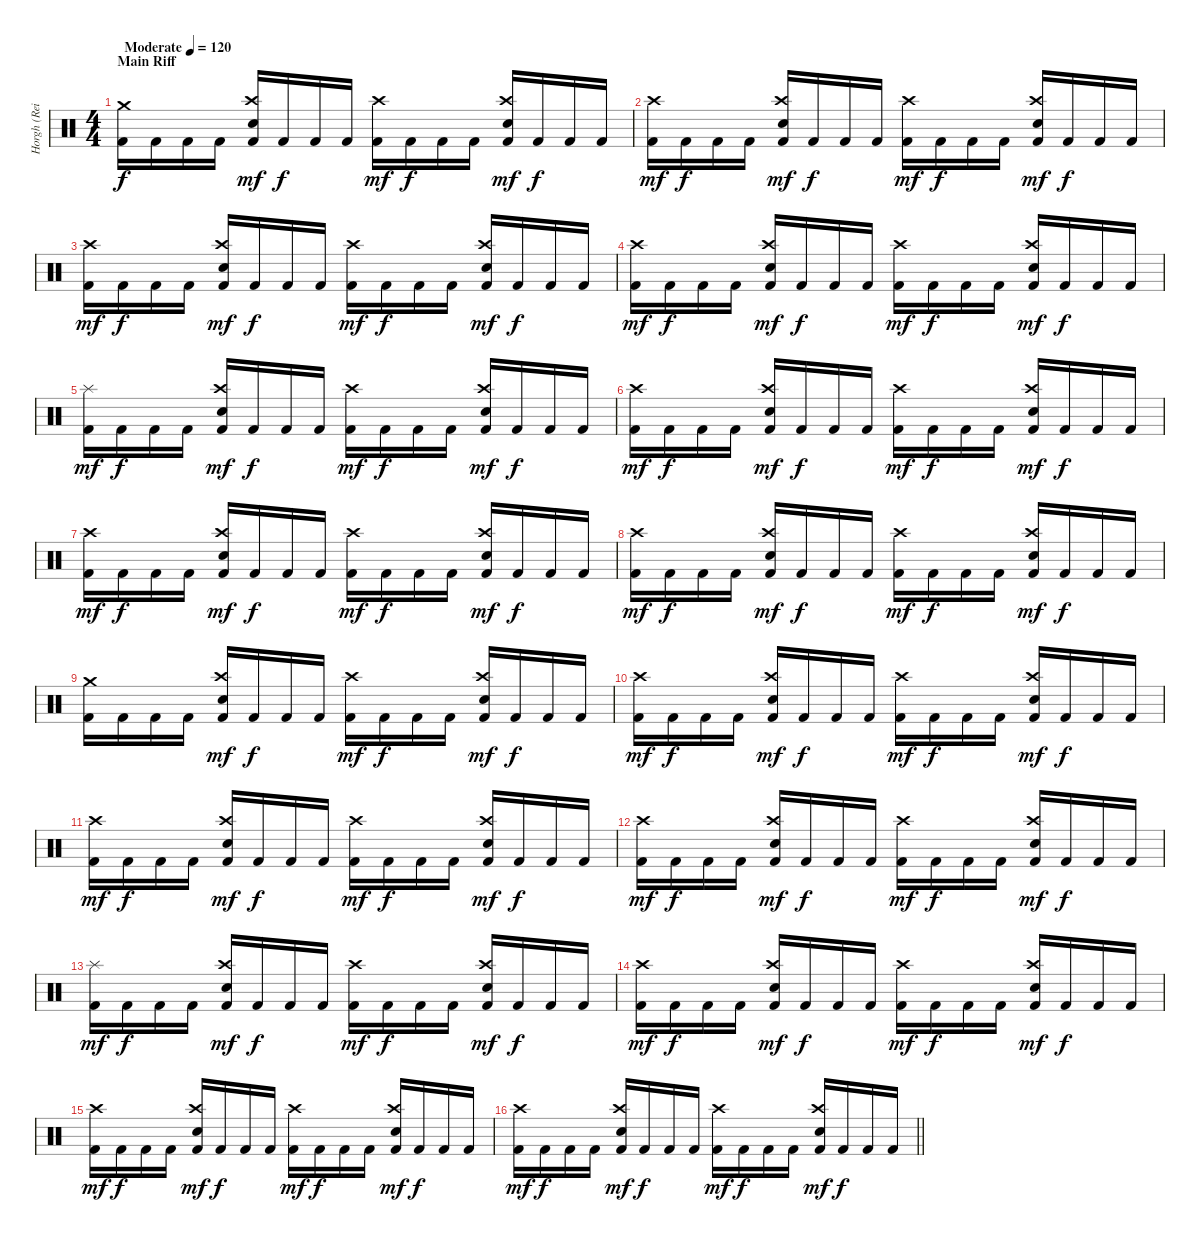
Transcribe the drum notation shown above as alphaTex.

\track ("Horgh (Reidar Horghagen)" "Horgh (Rei") {instrument percussion}
\staff {score}
\articulation defaults
\ts (4 4)
\section ("" "Main Riff")
\tempo (120 "Moderate")
\clef neutral
\ks c
("Crash medium (hit)" "Kick (hit) 2").16{dy f} "Kick (hit) 2".16 "Kick (hit) 2".16 "Kick (hit) 2".16 ("Crash high (hit)" "Snare (hit) 2" "Kick (hit) 2").16{dy mf} "Kick (hit) 2".16{dy f} "Kick (hit) 2".16 "Kick (hit) 2".16 ("Crash high (hit)" "Kick (hit) 2").16{dy mf} "Kick (hit) 2".16{dy f} "Kick (hit) 2".16 "Kick (hit) 2".16 ("Crash high (hit)" "Snare (hit) 2" "Kick (hit) 2").16{dy mf} "Kick (hit) 2".16{dy f} "Kick (hit) 2".16 "Kick (hit) 2".16 |
("Crash high (hit)" "Kick (hit) 2").16{dy mf} "Kick (hit) 2".16{dy f} "Kick (hit) 2".16 "Kick (hit) 2".16 ("Crash high (hit)" "Snare (hit) 2" "Kick (hit) 2").16{dy mf} "Kick (hit) 2".16{dy f} "Kick (hit) 2".16 "Kick (hit) 2".16 ("Crash high (hit)" "Kick (hit) 2").16{dy mf} "Kick (hit) 2".16{dy f} "Kick (hit) 2".16 "Kick (hit) 2".16 ("Crash high (hit)" "Snare (hit) 2" "Kick (hit) 2").16{dy mf} "Kick (hit) 2".16{dy f} "Kick (hit) 2".16 "Kick (hit) 2".16 |
("Crash high (hit)" "Kick (hit) 2").16{dy mf} "Kick (hit) 2".16{dy f} "Kick (hit) 2".16 "Kick (hit) 2".16 ("Crash high (hit)" "Snare (hit) 2" "Kick (hit) 2").16{dy mf} "Kick (hit) 2".16{dy f} "Kick (hit) 2".16 "Kick (hit) 2".16 ("Crash high (hit)" "Kick (hit) 2").16{dy mf} "Kick (hit) 2".16{dy f} "Kick (hit) 2".16 "Kick (hit) 2".16 ("Crash high (hit)" "Snare (hit) 2" "Kick (hit) 2").16{dy mf} "Kick (hit) 2".16{dy f} "Kick (hit) 2".16 "Kick (hit) 2".16 |
("Crash high (hit)" "Kick (hit) 2").16{dy mf} "Kick (hit) 2".16{dy f} "Kick (hit) 2".16 "Kick (hit) 2".16 ("Crash high (hit)" "Snare (hit) 2" "Kick (hit) 2").16{dy mf} "Kick (hit) 2".16{dy f} "Kick (hit) 2".16 "Kick (hit) 2".16 ("Crash high (hit)" "Kick (hit) 2").16{dy mf} "Kick (hit) 2".16{dy f} "Kick (hit) 2".16 "Kick (hit) 2".16 ("Crash high (hit)" "Snare (hit) 2" "Kick (hit) 2").16{dy mf} "Kick (hit) 2".16{dy f} "Kick (hit) 2".16 "Kick (hit) 2".16 |
("Splash (hit)" "Kick (hit) 2").16{dy mf} "Kick (hit) 2".16{dy f} "Kick (hit) 2".16 "Kick (hit) 2".16 ("Crash high (hit)" "Snare (hit) 2" "Kick (hit) 2").16{dy mf} "Kick (hit) 2".16{dy f} "Kick (hit) 2".16 "Kick (hit) 2".16 ("Crash high (hit)" "Kick (hit) 2").16{dy mf} "Kick (hit) 2".16{dy f} "Kick (hit) 2".16 "Kick (hit) 2".16 ("Crash high (hit)" "Snare (hit) 2" "Kick (hit) 2").16{dy mf} "Kick (hit) 2".16{dy f} "Kick (hit) 2".16 "Kick (hit) 2".16 |
("Crash high (hit)" "Kick (hit) 2").16{dy mf} "Kick (hit) 2".16{dy f} "Kick (hit) 2".16 "Kick (hit) 2".16 ("Crash high (hit)" "Snare (hit) 2" "Kick (hit) 2").16{dy mf} "Kick (hit) 2".16{dy f} "Kick (hit) 2".16 "Kick (hit) 2".16 ("Crash high (hit)" "Kick (hit) 2").16{dy mf} "Kick (hit) 2".16{dy f} "Kick (hit) 2".16 "Kick (hit) 2".16 ("Crash high (hit)" "Snare (hit) 2" "Kick (hit) 2").16{dy mf} "Kick (hit) 2".16{dy f} "Kick (hit) 2".16 "Kick (hit) 2".16 |
("Crash high (hit)" "Kick (hit) 2").16{dy mf} "Kick (hit) 2".16{dy f} "Kick (hit) 2".16 "Kick (hit) 2".16 ("Crash high (hit)" "Snare (hit) 2" "Kick (hit) 2").16{dy mf} "Kick (hit) 2".16{dy f} "Kick (hit) 2".16 "Kick (hit) 2".16 ("Crash high (hit)" "Kick (hit) 2").16{dy mf} "Kick (hit) 2".16{dy f} "Kick (hit) 2".16 "Kick (hit) 2".16 ("Crash high (hit)" "Snare (hit) 2" "Kick (hit) 2").16{dy mf} "Kick (hit) 2".16{dy f} "Kick (hit) 2".16 "Kick (hit) 2".16 |
("Crash high (hit)" "Kick (hit) 2").16{dy mf} "Kick (hit) 2".16{dy f} "Kick (hit) 2".16 "Kick (hit) 2".16 ("Crash high (hit)" "Snare (hit) 2" "Kick (hit) 2").16{dy mf} "Kick (hit) 2".16{dy f} "Kick (hit) 2".16 "Kick (hit) 2".16 ("Crash high (hit)" "Kick (hit) 2").16{dy mf} "Kick (hit) 2".16{dy f} "Kick (hit) 2".16 "Kick (hit) 2".16 ("Crash high (hit)" "Snare (hit) 2" "Kick (hit) 2").16{dy mf} "Kick (hit) 2".16{dy f} "Kick (hit) 2".16 "Kick (hit) 2".16 |
("Crash medium (hit)" "Kick (hit) 2").16 "Kick (hit) 2".16 "Kick (hit) 2".16 "Kick (hit) 2".16 ("Crash high (hit)" "Snare (hit) 2" "Kick (hit) 2").16{dy mf} "Kick (hit) 2".16{dy f} "Kick (hit) 2".16 "Kick (hit) 2".16 ("Crash high (hit)" "Kick (hit) 2").16{dy mf} "Kick (hit) 2".16{dy f} "Kick (hit) 2".16 "Kick (hit) 2".16 ("Crash high (hit)" "Snare (hit) 2" "Kick (hit) 2").16{dy mf} "Kick (hit) 2".16{dy f} "Kick (hit) 2".16 "Kick (hit) 2".16 |
("Crash high (hit)" "Kick (hit) 2").16{dy mf} "Kick (hit) 2".16{dy f} "Kick (hit) 2".16 "Kick (hit) 2".16 ("Crash high (hit)" "Snare (hit) 2" "Kick (hit) 2").16{dy mf} "Kick (hit) 2".16{dy f} "Kick (hit) 2".16 "Kick (hit) 2".16 ("Crash high (hit)" "Kick (hit) 2").16{dy mf} "Kick (hit) 2".16{dy f} "Kick (hit) 2".16 "Kick (hit) 2".16 ("Crash high (hit)" "Snare (hit) 2" "Kick (hit) 2").16{dy mf} "Kick (hit) 2".16{dy f} "Kick (hit) 2".16 "Kick (hit) 2".16 |
("Crash high (hit)" "Kick (hit) 2").16{dy mf} "Kick (hit) 2".16{dy f} "Kick (hit) 2".16 "Kick (hit) 2".16 ("Crash high (hit)" "Snare (hit) 2" "Kick (hit) 2").16{dy mf} "Kick (hit) 2".16{dy f} "Kick (hit) 2".16 "Kick (hit) 2".16 ("Crash high (hit)" "Kick (hit) 2").16{dy mf} "Kick (hit) 2".16{dy f} "Kick (hit) 2".16 "Kick (hit) 2".16 ("Crash high (hit)" "Snare (hit) 2" "Kick (hit) 2").16{dy mf} "Kick (hit) 2".16{dy f} "Kick (hit) 2".16 "Kick (hit) 2".16 |
("Crash high (hit)" "Kick (hit) 2").16{dy mf} "Kick (hit) 2".16{dy f} "Kick (hit) 2".16 "Kick (hit) 2".16 ("Crash high (hit)" "Snare (hit) 2" "Kick (hit) 2").16{dy mf} "Kick (hit) 2".16{dy f} "Kick (hit) 2".16 "Kick (hit) 2".16 ("Crash high (hit)" "Kick (hit) 2").16{dy mf} "Kick (hit) 2".16{dy f} "Kick (hit) 2".16 "Kick (hit) 2".16 ("Crash high (hit)" "Snare (hit) 2" "Kick (hit) 2").16{dy mf} "Kick (hit) 2".16{dy f} "Kick (hit) 2".16 "Kick (hit) 2".16 |
("Splash (hit)" "Kick (hit) 2").16{dy mf} "Kick (hit) 2".16{dy f} "Kick (hit) 2".16 "Kick (hit) 2".16 ("Crash high (hit)" "Snare (hit) 2" "Kick (hit) 2").16{dy mf} "Kick (hit) 2".16{dy f} "Kick (hit) 2".16 "Kick (hit) 2".16 ("Crash high (hit)" "Kick (hit) 2").16{dy mf} "Kick (hit) 2".16{dy f} "Kick (hit) 2".16 "Kick (hit) 2".16 ("Crash high (hit)" "Snare (hit) 2" "Kick (hit) 2").16{dy mf} "Kick (hit) 2".16{dy f} "Kick (hit) 2".16 "Kick (hit) 2".16 |
("Crash high (hit)" "Kick (hit) 2").16{dy mf} "Kick (hit) 2".16{dy f} "Kick (hit) 2".16 "Kick (hit) 2".16 ("Crash high (hit)" "Snare (hit) 2" "Kick (hit) 2").16{dy mf} "Kick (hit) 2".16{dy f} "Kick (hit) 2".16 "Kick (hit) 2".16 ("Crash high (hit)" "Kick (hit) 2").16{dy mf} "Kick (hit) 2".16{dy f} "Kick (hit) 2".16 "Kick (hit) 2".16 ("Crash high (hit)" "Snare (hit) 2" "Kick (hit) 2").16{dy mf} "Kick (hit) 2".16{dy f} "Kick (hit) 2".16 "Kick (hit) 2".16 |
("Crash high (hit)" "Kick (hit) 2").16{dy mf} "Kick (hit) 2".16{dy f} "Kick (hit) 2".16 "Kick (hit) 2".16 ("Crash high (hit)" "Snare (hit) 2" "Kick (hit) 2").16{dy mf} "Kick (hit) 2".16{dy f} "Kick (hit) 2".16 "Kick (hit) 2".16 ("Crash high (hit)" "Kick (hit) 2").16{dy mf} "Kick (hit) 2".16{dy f} "Kick (hit) 2".16 "Kick (hit) 2".16 ("Crash high (hit)" "Snare (hit) 2" "Kick (hit) 2").16{dy mf} "Kick (hit) 2".16{dy f} "Kick (hit) 2".16 "Kick (hit) 2".16 |
\barLineRight lightlight
("Crash high (hit)" "Kick (hit) 2").16{dy mf} "Kick (hit) 2".16{dy f} "Kick (hit) 2".16 "Kick (hit) 2".16 ("Crash high (hit)" "Snare (hit) 2" "Kick (hit) 2").16{dy mf} "Kick (hit) 2".16{dy f} "Kick (hit) 2".16 "Kick (hit) 2".16 ("Crash high (hit)" "Kick (hit) 2").16{dy mf} "Kick (hit) 2".16{dy f} "Kick (hit) 2".16 "Kick (hit) 2".16 ("Crash high (hit)" "Snare (hit) 2" "Kick (hit) 2").16{dy mf} "Kick (hit) 2".16{dy f} "Kick (hit) 2".16 "Kick (hit) 2".16
